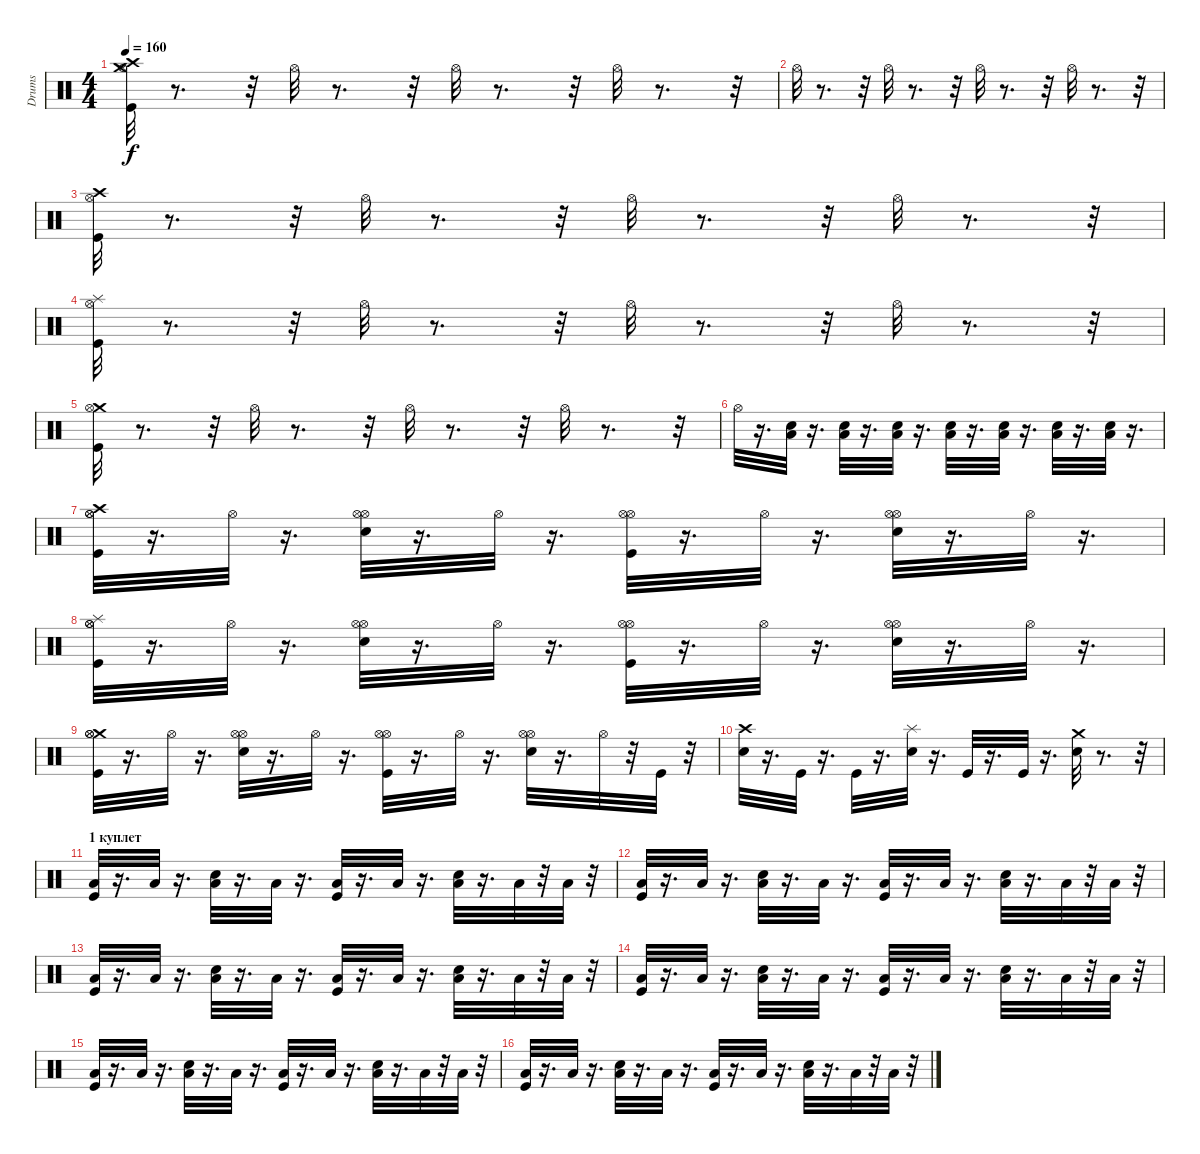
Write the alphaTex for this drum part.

\track ("Drums" "Drums") {instrument percussion}
\staff {score}
\articulation defaults
\ts (4 4)
\tempo 160
\clef neutral
\ks c
("Hi-Hat (open)" "Crash medium (hit)" "Crash high (hit)" "Kick (hit)").32{dy f} r.8{d} r.32 "Hi-Hat (open)".32 r.8{d} r.32 "Hi-Hat (open)".32 r.8{d} r.32 "Hi-Hat (open)".32 r.8{d} r.32 |
"Hi-Hat (open)".32 r.8{d} r.32 "Hi-Hat (open)".32 r.8{d} r.32 "Hi-Hat (open)".32 r.8{d} r.32 "Hi-Hat (open)".32 r.8{d} r.32 |
("Kick (hit)" "Crash high (hit)" "Hi-Hat (open)").32 r.8{d} r.32 "Hi-Hat (open)".32 r.8{d} r.32 "Hi-Hat (open)".32 r.8{d} r.32 "Hi-Hat (open)".32 r.8{d} r.32 |
("Kick (hit)" "Splash (hit)" "Hi-Hat (open)").32 r.8{d} r.32 "Hi-Hat (open)".32 r.8{d} r.32 "Hi-Hat (open)".32 r.8{d} r.32 "Hi-Hat (open)".32 r.8{d} r.32 |
("Kick (hit)" "Crash medium (hit)" "Hi-Hat (open)").32 r.8{d} r.32 "Hi-Hat (open)".32 r.8{d} r.32 "Hi-Hat (open)".32 r.8{d} r.32 "Hi-Hat (open)".32 r.8{d} r.32 |
"Hi-Hat (open)".32 r.16{d} ("Snare (hit) 2" "Low Floor Tom (hit)").32 r.16{d} ("Snare (hit) 2" "Low Floor Tom (hit)").32 r.16{d} ("Low Floor Tom (hit)" "Snare (hit) 2").32 r.16{d} ("Snare (hit) 2" "Low Floor Tom (hit)").32 r.16{d} ("Snare (hit) 2" "Low Floor Tom (hit)").32 r.16{d} ("Low Floor Tom (hit)" "Snare (hit) 2").32 r.16{d} ("Snare (hit) 2" "Low Floor Tom (hit)").32 r.16{d} |
("Kick (hit)" "Crash high (hit)" "Hi-Hat (open)" "Hi-Hat (open)").32 r.16{d} "Hi-Hat (open)".32 r.16{d} ("Snare (hit) 2" "Hi-Hat (open)" "Hi-Hat (open)").32 r.16{d} "Hi-Hat (open)".32 r.16{d} ("Kick (hit)" "Hi-Hat (open)" "Hi-Hat (open)").32 r.16{d} "Hi-Hat (open)".32 r.16{d} ("Snare (hit) 2" "Hi-Hat (open)" "Hi-Hat (open)").32 r.16{d} "Hi-Hat (open)".32 r.16{d} |
("Kick (hit)" "Splash (hit)" "Hi-Hat (open)" "Hi-Hat (open)").32 r.16{d} "Hi-Hat (open)".32 r.16{d} ("Snare (hit) 2" "Hi-Hat (open)" "Hi-Hat (open)").32 r.16{d} "Hi-Hat (open)".32 r.16{d} ("Kick (hit)" "Hi-Hat (open)" "Hi-Hat (open)").32 r.16{d} "Hi-Hat (open)".32 r.16{d} ("Snare (hit) 2" "Hi-Hat (open)" "Hi-Hat (open)").32 r.16{d} "Hi-Hat (open)".32 r.16{d} |
("Kick (hit)" "Crash medium (hit)" "Hi-Hat (open)" "Hi-Hat (open)").32 r.16{d} "Hi-Hat (open)".32 r.16{d} ("Snare (hit) 2" "Hi-Hat (open)" "Hi-Hat (open)").32 r.16{d} "Hi-Hat (open)".32 r.16{d} ("Kick (hit)" "Hi-Hat (open)" "Hi-Hat (open)").32 r.16{d} "Hi-Hat (open)".32 r.16{d} ("Snare (hit) 2" "Hi-Hat (open)" "Hi-Hat (open)").32 r.16{d} "Hi-Hat (open)".32 r.32 "Kick (hit)".32 r.32 |
("Crash high (hit)" "Snare (hit) 2").32 r.16{d} "Kick (hit)".32 r.16{d} "Kick (hit)".32 r.16{d} ("Splash (hit)" "Snare (hit) 2").32 r.16{d} "Kick (hit)".32 r.16{d} "Kick (hit)".32 r.16{d} ("Crash medium (hit)" "Snare (hit) 2").32 r.8{d} r.32 |
\section ("" "1 куплет")
("Kick (hit)" "Low Floor Tom (hit)").32 r.16{d} "Low Floor Tom (hit)".32 r.16{d} ("Low Floor Tom (hit)" "Snare (hit) 2").32 r.16{d} "Low Floor Tom (hit)".32 r.16{d} ("Kick (hit)" "Low Floor Tom (hit)").32 r.16{d} "Low Floor Tom (hit)".32 r.16{d} ("Low Floor Tom (hit)" "Snare (hit) 2").32 r.16{d} "Low Floor Tom (hit)".32 r.32 "Low Floor Tom (hit)".32 r.32 |
("Kick (hit)" "Low Floor Tom (hit)").32 r.16{d} "Low Floor Tom (hit)".32 r.16{d} ("Low Floor Tom (hit)" "Snare (hit) 2").32 r.16{d} "Low Floor Tom (hit)".32 r.16{d} ("Low Floor Tom (hit)" "Kick (hit)").32 r.16{d} "Low Floor Tom (hit)".32 r.16{d} ("Snare (hit) 2" "Low Floor Tom (hit)").32 r.16{d} "Low Floor Tom (hit)".32 r.32 "Low Floor Tom (hit)".32 r.32 |
("Kick (hit)" "Low Floor Tom (hit)").32 r.16{d} "Low Floor Tom (hit)".32 r.16{d} ("Low Floor Tom (hit)" "Snare (hit) 2").32 r.16{d} "Low Floor Tom (hit)".32 r.16{d} ("Kick (hit)" "Low Floor Tom (hit)").32 r.16{d} "Low Floor Tom (hit)".32 r.16{d} ("Low Floor Tom (hit)" "Snare (hit) 2").32 r.16{d} "Low Floor Tom (hit)".32 r.32 "Low Floor Tom (hit)".32 r.32 |
("Kick (hit)" "Low Floor Tom (hit)").32 r.16{d} "Low Floor Tom (hit)".32 r.16{d} ("Low Floor Tom (hit)" "Snare (hit) 2").32 r.16{d} "Low Floor Tom (hit)".32 r.16{d} ("Low Floor Tom (hit)" "Kick (hit)").32 r.16{d} "Low Floor Tom (hit)".32 r.16{d} ("Snare (hit) 2" "Low Floor Tom (hit)").32 r.16{d} "Low Floor Tom (hit)".32 r.32 "Low Floor Tom (hit)".32 r.32 |
("Kick (hit)" "Low Floor Tom (hit)").32 r.16{d} "Low Floor Tom (hit)".32 r.16{d} ("Low Floor Tom (hit)" "Snare (hit) 2").32 r.16{d} "Low Floor Tom (hit)".32 r.16{d} ("Kick (hit)" "Low Floor Tom (hit)").32 r.16{d} "Low Floor Tom (hit)".32 r.16{d} ("Low Floor Tom (hit)" "Snare (hit) 2").32 r.16{d} "Low Floor Tom (hit)".32 r.32 "Low Floor Tom (hit)".32 r.32 |
("Kick (hit)" "Low Floor Tom (hit)").32 r.16{d} "Low Floor Tom (hit)".32 r.16{d} ("Low Floor Tom (hit)" "Snare (hit) 2").32 r.16{d} "Low Floor Tom (hit)".32 r.16{d} ("Low Floor Tom (hit)" "Kick (hit)").32 r.16{d} "Low Floor Tom (hit)".32 r.16{d} ("Snare (hit) 2" "Low Floor Tom (hit)").32 r.16{d} "Low Floor Tom (hit)".32 r.32 "Low Floor Tom (hit)".32 r.32
